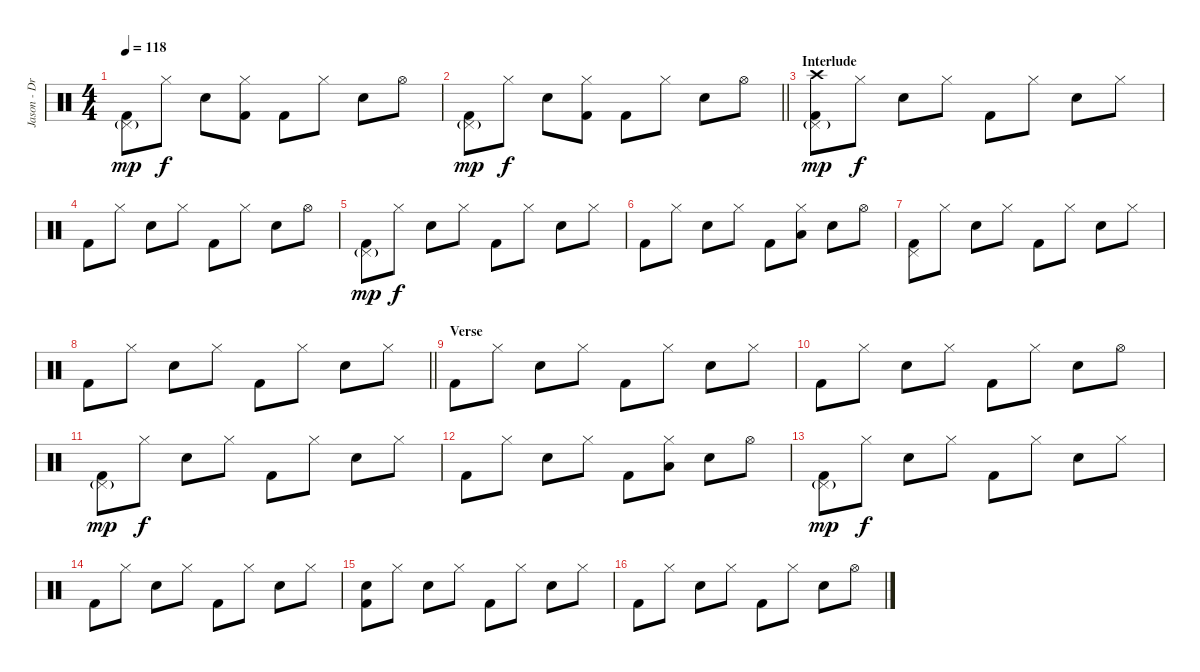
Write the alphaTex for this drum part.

\track ("Jason - Drums" "Jason - Dr") {instrument percussion}
\staff {score}
\articulation defaults
\ts (4 4)
\tempo 118
\clef neutral
\ks c
("Pedal Hi-Hat (hit)"{g} "Kick (hit) 2").8{dy mp} "Hi-Hat (closed)".8{dy f} "Electric Snare (hit)".8 ("Hi-Hat (closed)" "Kick (hit) 2").8 "Kick (hit) 2".8 "Hi-Hat (closed)".8 "Electric Snare (hit)".8 "Hi-Hat (open)".8 |
\barLineRight lightlight
("Pedal Hi-Hat (hit)"{g} "Kick (hit) 2").8{dy mp} "Hi-Hat (closed)".8{dy f} "Electric Snare (hit)".8 ("Hi-Hat (closed)" "Kick (hit) 2").8 "Kick (hit) 2".8 "Hi-Hat (closed)".8 "Electric Snare (hit)".8 "Hi-Hat (open)".8 |
\section ("" "Interlude")
("Crash high (hit)" "Pedal Hi-Hat (hit)"{g} "Kick (hit) 2").8{dy mp} "Hi-Hat (closed)".8{dy f} "Electric Snare (hit)".8 "Hi-Hat (closed)".8 "Kick (hit) 2".8 "Hi-Hat (closed)".8 "Electric Snare (hit)".8 "Hi-Hat (closed)".8 |
"Kick (hit) 2".8 "Hi-Hat (closed)".8 "Electric Snare (hit)".8 "Hi-Hat (closed)".8 "Kick (hit) 2".8 "Hi-Hat (closed)".8 "Electric Snare (hit)".8 "Hi-Hat (open)".8 |
("Pedal Hi-Hat (hit)"{g} "Kick (hit) 2").8{dy mp} "Hi-Hat (closed)".8{dy f} "Electric Snare (hit)".8 "Hi-Hat (closed)".8 "Kick (hit) 2".8 "Hi-Hat (closed)".8 "Electric Snare (hit)".8 "Hi-Hat (closed)".8 |
"Kick (hit) 2".8 "Hi-Hat (closed)".8 "Electric Snare (hit)".8 "Hi-Hat (closed)".8 "Kick (hit) 2".8 ("Hi-Hat (closed)" "Low Floor Tom (hit)").8 "Electric Snare (hit)".8 "Hi-Hat (open)".8 |
("Pedal Hi-Hat (hit)" "Kick (hit) 2").8 "Hi-Hat (closed)".8 "Electric Snare (hit)".8 "Hi-Hat (closed)".8 "Kick (hit) 2".8 "Hi-Hat (closed)".8 "Electric Snare (hit)".8 "Hi-Hat (closed)".8 |
\barLineRight lightlight "Kick (hit) 2".8 "Hi-Hat (closed)".8 "Electric Snare (hit)".8 "Hi-Hat (closed)".8 "Kick (hit) 2".8 "Hi-Hat (closed)".8 "Electric Snare (hit)".8 "Hi-Hat (closed)".8
|
\section ("" "Verse")
"Kick (hit) 2".8 "Hi-Hat (closed)".8 "Electric Snare (hit)".8 "Hi-Hat (closed)".8 "Kick (hit) 2".8 "Hi-Hat (closed)".8 "Electric Snare (hit)".8 "Hi-Hat (closed)".8 |
"Kick (hit) 2".8 "Hi-Hat (closed)".8 "Electric Snare (hit)".8 "Hi-Hat (closed)".8 "Kick (hit) 2".8 "Hi-Hat (closed)".8 "Electric Snare (hit)".8 "Hi-Hat (open)".8 |
("Pedal Hi-Hat (hit)"{g} "Kick (hit) 2").8{dy mp} "Hi-Hat (closed)".8{dy f} "Electric Snare (hit)".8 "Hi-Hat (closed)".8 "Kick (hit) 2".8 "Hi-Hat (closed)".8 "Electric Snare (hit)".8 "Hi-Hat (closed)".8 |
"Kick (hit) 2".8 "Hi-Hat (closed)".8 "Electric Snare (hit)".8 "Hi-Hat (closed)".8 "Kick (hit) 2".8 ("Hi-Hat (closed)" "Low Floor Tom (hit)").8 "Electric Snare (hit)".8 "Hi-Hat (open)".8 |
("Pedal Hi-Hat (hit)"{g} "Kick (hit) 2").8{dy mp} "Hi-Hat (closed)".8{dy f} "Electric Snare (hit)".8 "Hi-Hat (closed)".8 "Kick (hit) 2".8 "Hi-Hat (closed)".8 "Electric Snare (hit)".8 "Hi-Hat (closed)".8 |
"Kick (hit) 2".8 "Hi-Hat (closed)".8 "Electric Snare (hit)".8 "Hi-Hat (closed)".8 "Kick (hit) 2".8 "Hi-Hat (closed)".8 "Electric Snare (hit)".8 "Hi-Hat (closed)".8 |
("Electric Snare (hit)" "Kick (hit) 2").8 "Hi-Hat (closed)".8 "Electric Snare (hit)".8 "Hi-Hat (closed)".8 "Kick (hit) 2".8 "Hi-Hat (closed)".8 "Electric Snare (hit)".8 "Hi-Hat (closed)".8 |
"Kick (hit) 2".8 "Hi-Hat (closed)".8 "Electric Snare (hit)".8 "Hi-Hat (closed)".8 "Kick (hit) 2".8 "Hi-Hat (closed)".8 "Electric Snare (hit)".8 "Hi-Hat (open)".8
